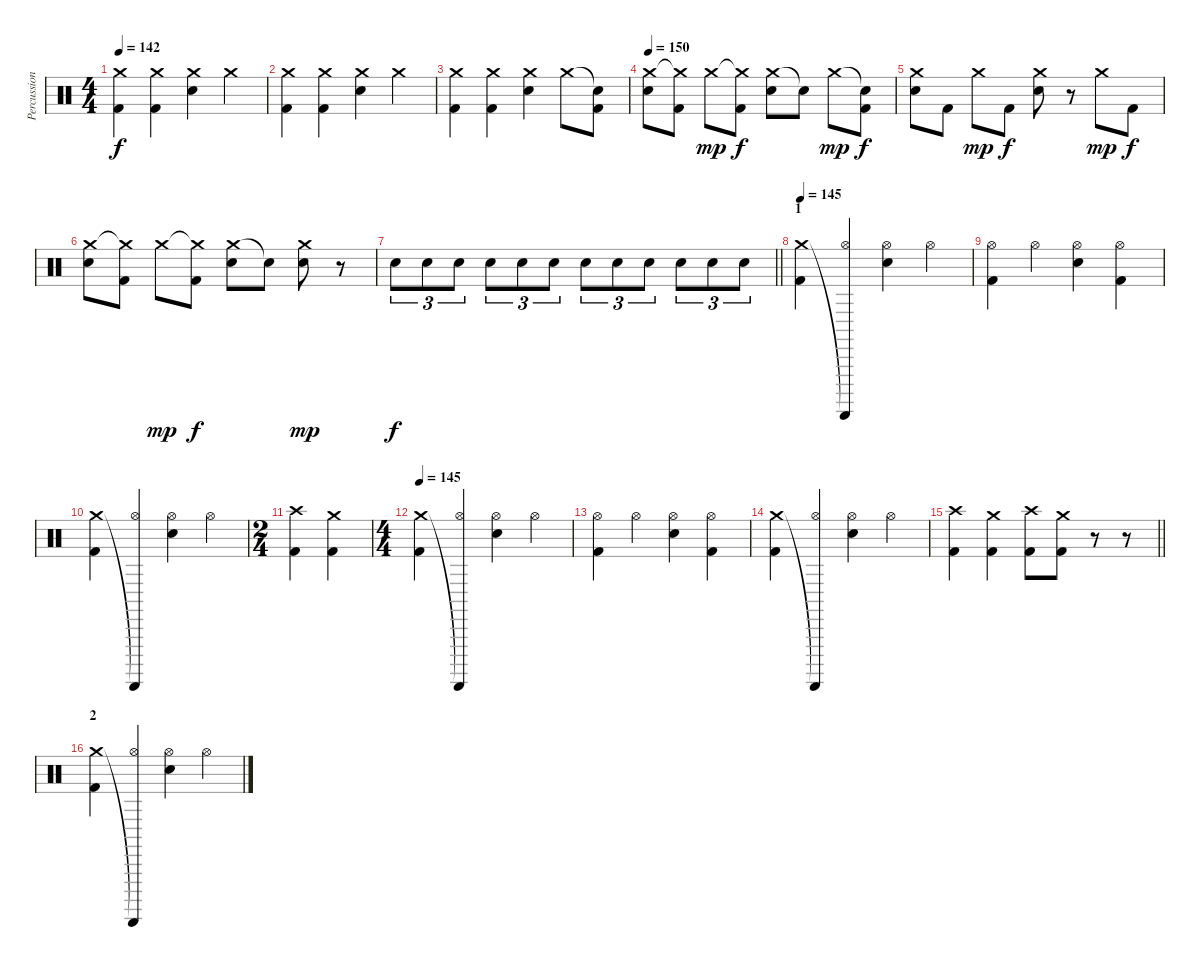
\track ("Percussion" "Percussion") {instrument percussion}
\staff {score}
\articulation defaults
\ts (4 4)
\tempo 142
\clef neutral
\ks c
("Crash medium (hit)" "Kick (hit) 2").4{dy f} ("Crash medium (hit)" "Kick (hit) 2").4 ("Crash medium (hit)" "Electric Snare (hit)").4 "Crash medium (hit)".4 |
("Crash medium (hit)" "Kick (hit) 2").4 ("Crash medium (hit)" "Kick (hit) 2").4 ("Crash medium (hit)" "Electric Snare (hit)").4 "Crash medium (hit)".4 |
("Crash medium (hit)" "Kick (hit) 2").4 ("Crash medium (hit)" "Kick (hit) 2").4 ("Crash medium (hit)" "Electric Snare (hit)").4 "Crash medium (hit)".8 ("Snare (hit)"{t} "Kick (hit) 2").8 |
\tempo 150
("Crash medium (hit)" "Electric Snare (hit)").8 ("Crash medium (hit)"{t} "Kick (hit) 2").8 "Crash medium (hit)".8{dy mp} ("Crash medium (hit)"{t} "Kick (hit) 2").8{dy f} ("Crash medium (hit)" "Electric Snare (hit)").8 "Snare (hit)"{t}.8 "Crash medium (hit)".8{dy mp} ("Snare (hit)"{t} "Kick (hit) 2").8{dy f} |
("Crash medium (hit)" "Electric Snare (hit)").8 "Kick (hit) 2".8 "Crash medium (hit)".8{dy mp} "Kick (hit) 2".8{dy f} ("Crash medium (hit)" "Electric Snare (hit)").8 r.8 "Crash medium (hit)".8{dy mp} "Kick (hit) 2".8{dy f} |
("Crash medium (hit)" "Electric Snare (hit)").8 ("Crash medium (hit)"{t} "Kick (hit) 2").8 "Crash medium (hit)".8{dy mp} ("Crash medium (hit)"{t} "Kick (hit) 2").8{dy f} ("Crash medium (hit)" "Electric Snare (hit)").8 "Snare (hit)"{t}.8 ("Crash medium (hit)" "Electric Snare (hit)").8{dy mp} r.8 |
\barLineRight lightlight "Electric Snare (hit)".8{tu (3 2) dy f} "Electric Snare (hit)".8{tu (3 2)} "Electric Snare (hit)".8{tu (3 2)} "Electric Snare (hit)".8{tu (3 2)} "Electric Snare (hit)".8{tu (3 2)} "Electric Snare (hit)".8{tu (3 2)} "Electric Snare (hit)".8{tu (3 2)} "Electric Snare (hit)".8{tu (3 2)} "Electric Snare (hit)".8{tu (3 2)} "Electric Snare (hit)".8{tu (3 2)} "Electric Snare (hit)".8{tu (3 2)} "Electric Snare (hit)".8{tu (3 2)}
|
\section ("" "1")
\tempo 145
("Crash medium (hit)" "Kick (hit) 2").4 ("Guiro (scrap-return)"{t} "Hi-Hat (open)").4 ("Hi-Hat (open)" "Electric Snare (hit)").4 "Hi-Hat (open)".4 |
("Hi-Hat (open)" "Kick (hit) 2").4 "Hi-Hat (open)".4 ("Hi-Hat (open)" "Electric Snare (hit)").4 ("Hi-Hat (open)" "Kick (hit) 2").4 |
("Crash medium (hit)" "Kick (hit) 2").4 ("Guiro (scrap-return)"{t} "Hi-Hat (open)").4 ("Hi-Hat (open)" "Electric Snare (hit)").4 "Hi-Hat (open)".4 |
\ts (2 4)
("Kick (hit) 2" "Crash high (hit)").4 ("Kick (hit) 2" "Crash medium (hit)").4 |
\ts (4 4)
\tempo 145
("Crash medium (hit)" "Kick (hit) 2").4 ("Guiro (scrap-return)"{t} "Hi-Hat (open)").4 ("Hi-Hat (open)" "Electric Snare (hit)").4 "Hi-Hat (open)".4 |
("Hi-Hat (open)" "Kick (hit) 2").4 "Hi-Hat (open)".4 ("Hi-Hat (open)" "Electric Snare (hit)").4 ("Hi-Hat (open)" "Kick (hit) 2").4 |
("Crash medium (hit)" "Kick (hit) 2").4 ("Guiro (scrap-return)"{t} "Hi-Hat (open)").4 ("Hi-Hat (open)" "Electric Snare (hit)").4 "Hi-Hat (open)".4 |
\barLineRight lightlight
("Kick (hit) 2" "Crash high (hit)").4 ("Kick (hit) 2" "Crash medium (hit)").4 ("Kick (hit) 2" "Crash high (hit)").8 ("Kick (hit) 2" "Crash medium (hit)").8 r.8 r.8 |
\section ("" "2")
("Crash medium (hit)" "Kick (hit) 2").4 ("Guiro (scrap-return)"{t} "Hi-Hat (open)").4 ("Hi-Hat (open)" "Electric Snare (hit)").4 "Hi-Hat (open)".4
